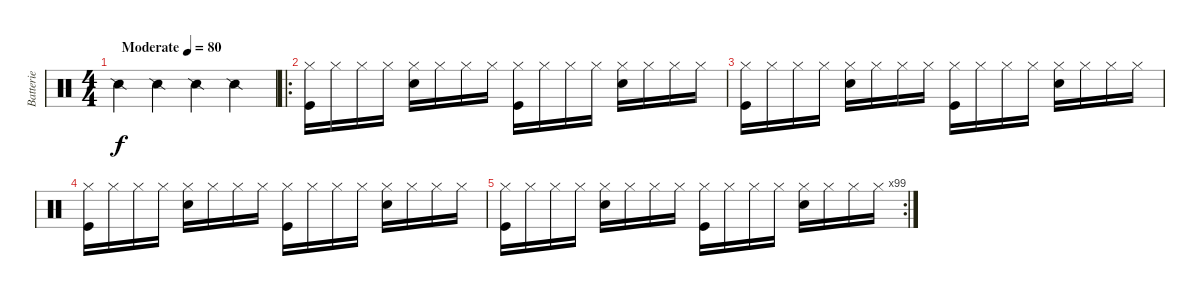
\track ("Batterie" "Batterie") {instrument percussion}
\staff {score}
\articulation defaults
\ts (4 4)
\tempo (80 "Moderate")
\clef neutral
\ks c "Snare (side stick) 2".4{dy f} "Snare (side stick) 2".4 "Snare (side stick) 2".4 "Snare (side stick) 2".4
|
\ro
("Hi-Hat (closed)" "Kick (hit)").16 "Hi-Hat (closed)".16 "Hi-Hat (closed)".16 "Hi-Hat (closed)".16 ("Hi-Hat (closed)" "Snare (hit) 2").16 "Hi-Hat (closed)".16 "Hi-Hat (closed)".16 "Hi-Hat (closed)".16 ("Hi-Hat (closed)" "Kick (hit)").16 "Hi-Hat (closed)".16 "Hi-Hat (closed)".16 "Hi-Hat (closed)".16 ("Hi-Hat (closed)" "Snare (hit) 2").16 "Hi-Hat (closed)".16 "Hi-Hat (closed)".16 "Hi-Hat (closed)".16 |
("Hi-Hat (closed)" "Kick (hit)").16 "Hi-Hat (closed)".16 "Hi-Hat (closed)".16 "Hi-Hat (closed)".16 ("Hi-Hat (closed)" "Snare (hit) 2").16 "Hi-Hat (closed)".16 "Hi-Hat (closed)".16 "Hi-Hat (closed)".16 ("Hi-Hat (closed)" "Kick (hit)").16 "Hi-Hat (closed)".16 "Hi-Hat (closed)".16 "Hi-Hat (closed)".16 ("Hi-Hat (closed)" "Snare (hit) 2").16 "Hi-Hat (closed)".16 "Hi-Hat (closed)".16 "Hi-Hat (closed)".16 |
("Hi-Hat (closed)" "Kick (hit)").16 "Hi-Hat (closed)".16 "Hi-Hat (closed)".16 "Hi-Hat (closed)".16 ("Hi-Hat (closed)" "Snare (hit) 2").16 "Hi-Hat (closed)".16 "Hi-Hat (closed)".16 "Hi-Hat (closed)".16 ("Hi-Hat (closed)" "Kick (hit)").16 "Hi-Hat (closed)".16 "Hi-Hat (closed)".16 "Hi-Hat (closed)".16 ("Hi-Hat (closed)" "Snare (hit) 2").16 "Hi-Hat (closed)".16 "Hi-Hat (closed)".16 "Hi-Hat (closed)".16 |
\rc 99
("Hi-Hat (closed)" "Kick (hit)").16 "Hi-Hat (closed)".16 "Hi-Hat (closed)".16 "Hi-Hat (closed)".16 ("Hi-Hat (closed)" "Snare (hit) 2").16 "Hi-Hat (closed)".16 "Hi-Hat (closed)".16 "Hi-Hat (closed)".16 ("Hi-Hat (closed)" "Kick (hit)").16 "Hi-Hat (closed)".16 "Hi-Hat (closed)".16 "Hi-Hat (closed)".16 ("Hi-Hat (closed)" "Snare (hit) 2").16 "Hi-Hat (closed)".16 "Hi-Hat (closed)".16 "Hi-Hat (closed)".16
